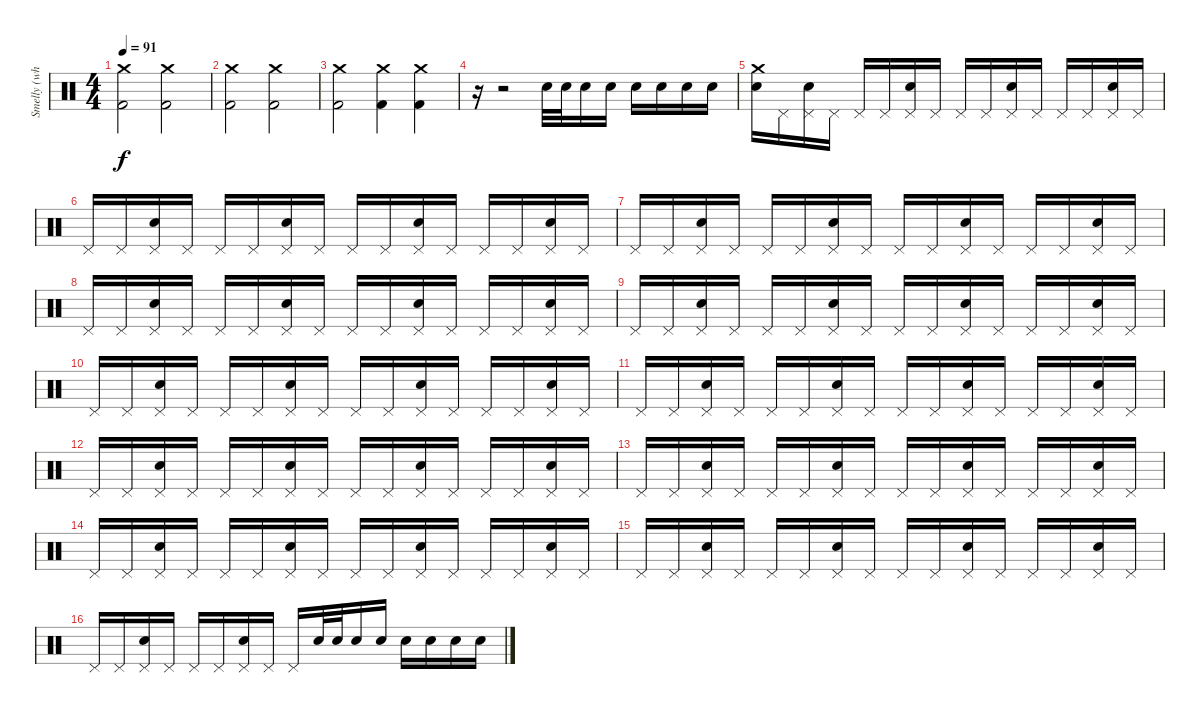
\track ("Smelly (who ever change his name)" "Smelly (wh") {instrument percussion}
\staff {score}
\articulation defaults
\ts (4 4)
\tempo 91
\clef neutral
\ks c
("Crash medium (hit)" "Kick (hit) 2").2{dy f volume 8} ("Crash medium (hit)" "Kick (hit) 2").2 |
("Crash medium (hit)" "Kick (hit) 2").2 ("Crash medium (hit)" "Kick (hit) 2").2 |
("Crash medium (hit)" "Kick (hit) 2").2 ("Crash medium (hit)" "Kick (hit) 2").4 ("Crash medium (hit)" "Kick (hit) 2").4 |
r.16 r.2 "Electric Snare (hit)".32 "Electric Snare (hit)".32 "Electric Snare (hit)".16 "Electric Snare (hit)".16 "Electric Snare (hit)".16 "Electric Snare (hit)".16 "Electric Snare (hit)".16 "Electric Snare (hit)".16 |
("Crash medium (hit)" "Electric Snare (hit)").16 "Pedal Hi-Hat (hit)".16 ("Pedal Hi-Hat (hit)" "Electric Snare (hit)").16 "Pedal Hi-Hat (hit)".16 "Pedal Hi-Hat (hit)".16 "Pedal Hi-Hat (hit)".16 ("Pedal Hi-Hat (hit)" "Electric Snare (hit)").16 "Pedal Hi-Hat (hit)".16 "Pedal Hi-Hat (hit)".16 "Pedal Hi-Hat (hit)".16 ("Pedal Hi-Hat (hit)" "Electric Snare (hit)").16 "Pedal Hi-Hat (hit)".16 "Pedal Hi-Hat (hit)".16 "Pedal Hi-Hat (hit)".16 ("Pedal Hi-Hat (hit)" "Electric Snare (hit)").16 "Pedal Hi-Hat (hit)".16 |
"Pedal Hi-Hat (hit)".16 "Pedal Hi-Hat (hit)".16 ("Pedal Hi-Hat (hit)" "Electric Snare (hit)").16 "Pedal Hi-Hat (hit)".16 "Pedal Hi-Hat (hit)".16 "Pedal Hi-Hat (hit)".16 ("Pedal Hi-Hat (hit)" "Electric Snare (hit)").16 "Pedal Hi-Hat (hit)".16 "Pedal Hi-Hat (hit)".16 "Pedal Hi-Hat (hit)".16 ("Pedal Hi-Hat (hit)" "Electric Snare (hit)").16 "Pedal Hi-Hat (hit)".16 "Pedal Hi-Hat (hit)".16 "Pedal Hi-Hat (hit)".16 ("Pedal Hi-Hat (hit)" "Electric Snare (hit)").16 "Pedal Hi-Hat (hit)".16 |
"Pedal Hi-Hat (hit)".16 "Pedal Hi-Hat (hit)".16 ("Pedal Hi-Hat (hit)" "Electric Snare (hit)").16 "Pedal Hi-Hat (hit)".16 "Pedal Hi-Hat (hit)".16 "Pedal Hi-Hat (hit)".16 ("Pedal Hi-Hat (hit)" "Electric Snare (hit)").16 "Pedal Hi-Hat (hit)".16 "Pedal Hi-Hat (hit)".16 "Pedal Hi-Hat (hit)".16 ("Pedal Hi-Hat (hit)" "Electric Snare (hit)").16 "Pedal Hi-Hat (hit)".16 "Pedal Hi-Hat (hit)".16 "Pedal Hi-Hat (hit)".16 ("Pedal Hi-Hat (hit)" "Electric Snare (hit)").16 "Pedal Hi-Hat (hit)".16 |
"Pedal Hi-Hat (hit)".16 "Pedal Hi-Hat (hit)".16 ("Pedal Hi-Hat (hit)" "Electric Snare (hit)").16 "Pedal Hi-Hat (hit)".16 "Pedal Hi-Hat (hit)".16 "Pedal Hi-Hat (hit)".16 ("Pedal Hi-Hat (hit)" "Electric Snare (hit)").16 "Pedal Hi-Hat (hit)".16 "Pedal Hi-Hat (hit)".16 "Pedal Hi-Hat (hit)".16 ("Pedal Hi-Hat (hit)" "Electric Snare (hit)").16 "Pedal Hi-Hat (hit)".16 "Pedal Hi-Hat (hit)".16 "Pedal Hi-Hat (hit)".16 ("Pedal Hi-Hat (hit)" "Electric Snare (hit)").16 "Pedal Hi-Hat (hit)".16 |
"Pedal Hi-Hat (hit)".16 "Pedal Hi-Hat (hit)".16 ("Pedal Hi-Hat (hit)" "Electric Snare (hit)").16 "Pedal Hi-Hat (hit)".16 "Pedal Hi-Hat (hit)".16 "Pedal Hi-Hat (hit)".16 ("Pedal Hi-Hat (hit)" "Electric Snare (hit)").16 "Pedal Hi-Hat (hit)".16 "Pedal Hi-Hat (hit)".16 "Pedal Hi-Hat (hit)".16 ("Pedal Hi-Hat (hit)" "Electric Snare (hit)").16 "Pedal Hi-Hat (hit)".16 "Pedal Hi-Hat (hit)".16 "Pedal Hi-Hat (hit)".16 ("Pedal Hi-Hat (hit)" "Electric Snare (hit)").16 "Pedal Hi-Hat (hit)".16 |
"Pedal Hi-Hat (hit)".16 "Pedal Hi-Hat (hit)".16 ("Pedal Hi-Hat (hit)" "Electric Snare (hit)").16 "Pedal Hi-Hat (hit)".16 "Pedal Hi-Hat (hit)".16 "Pedal Hi-Hat (hit)".16 ("Pedal Hi-Hat (hit)" "Electric Snare (hit)").16 "Pedal Hi-Hat (hit)".16 "Pedal Hi-Hat (hit)".16 "Pedal Hi-Hat (hit)".16 ("Pedal Hi-Hat (hit)" "Electric Snare (hit)").16 "Pedal Hi-Hat (hit)".16 "Pedal Hi-Hat (hit)".16 "Pedal Hi-Hat (hit)".16 ("Pedal Hi-Hat (hit)" "Electric Snare (hit)").16 "Pedal Hi-Hat (hit)".16 |
"Pedal Hi-Hat (hit)".16 "Pedal Hi-Hat (hit)".16 ("Pedal Hi-Hat (hit)" "Electric Snare (hit)").16 "Pedal Hi-Hat (hit)".16 "Pedal Hi-Hat (hit)".16 "Pedal Hi-Hat (hit)".16 ("Pedal Hi-Hat (hit)" "Electric Snare (hit)").16 "Pedal Hi-Hat (hit)".16 "Pedal Hi-Hat (hit)".16 "Pedal Hi-Hat (hit)".16 ("Pedal Hi-Hat (hit)" "Electric Snare (hit)").16 "Pedal Hi-Hat (hit)".16 "Pedal Hi-Hat (hit)".16 "Pedal Hi-Hat (hit)".16 ("Pedal Hi-Hat (hit)" "Electric Snare (hit)").16 "Pedal Hi-Hat (hit)".16 |
"Pedal Hi-Hat (hit)".16 "Pedal Hi-Hat (hit)".16 ("Pedal Hi-Hat (hit)" "Electric Snare (hit)").16 "Pedal Hi-Hat (hit)".16 "Pedal Hi-Hat (hit)".16 "Pedal Hi-Hat (hit)".16 ("Pedal Hi-Hat (hit)" "Electric Snare (hit)").16 "Pedal Hi-Hat (hit)".16 "Pedal Hi-Hat (hit)".16 "Pedal Hi-Hat (hit)".16 ("Pedal Hi-Hat (hit)" "Electric Snare (hit)").16 "Pedal Hi-Hat (hit)".16 "Pedal Hi-Hat (hit)".16 "Pedal Hi-Hat (hit)".16 ("Pedal Hi-Hat (hit)" "Electric Snare (hit)").16 "Pedal Hi-Hat (hit)".16 |
"Pedal Hi-Hat (hit)".16 "Pedal Hi-Hat (hit)".16 ("Pedal Hi-Hat (hit)" "Electric Snare (hit)").16 "Pedal Hi-Hat (hit)".16 "Pedal Hi-Hat (hit)".16 "Pedal Hi-Hat (hit)".16 ("Pedal Hi-Hat (hit)" "Electric Snare (hit)").16 "Pedal Hi-Hat (hit)".16 "Pedal Hi-Hat (hit)".16 "Pedal Hi-Hat (hit)".16 ("Pedal Hi-Hat (hit)" "Electric Snare (hit)").16 "Pedal Hi-Hat (hit)".16 "Pedal Hi-Hat (hit)".16 "Pedal Hi-Hat (hit)".16 ("Pedal Hi-Hat (hit)" "Electric Snare (hit)").16 "Pedal Hi-Hat (hit)".16 |
"Pedal Hi-Hat (hit)".16 "Pedal Hi-Hat (hit)".16 ("Pedal Hi-Hat (hit)" "Electric Snare (hit)").16 "Pedal Hi-Hat (hit)".16 "Pedal Hi-Hat (hit)".16 "Pedal Hi-Hat (hit)".16 ("Pedal Hi-Hat (hit)" "Electric Snare (hit)").16 "Pedal Hi-Hat (hit)".16 "Pedal Hi-Hat (hit)".16 "Pedal Hi-Hat (hit)".16 ("Pedal Hi-Hat (hit)" "Electric Snare (hit)").16 "Pedal Hi-Hat (hit)".16 "Pedal Hi-Hat (hit)".16 "Pedal Hi-Hat (hit)".16 ("Pedal Hi-Hat (hit)" "Electric Snare (hit)").16 "Pedal Hi-Hat (hit)".16 |
"Pedal Hi-Hat (hit)".16 "Pedal Hi-Hat (hit)".16 ("Pedal Hi-Hat (hit)" "Electric Snare (hit)").16 "Pedal Hi-Hat (hit)".16 "Pedal Hi-Hat (hit)".16 "Pedal Hi-Hat (hit)".16 ("Pedal Hi-Hat (hit)" "Electric Snare (hit)").16 "Pedal Hi-Hat (hit)".16 "Pedal Hi-Hat (hit)".16 "Pedal Hi-Hat (hit)".16 ("Pedal Hi-Hat (hit)" "Electric Snare (hit)").16 "Pedal Hi-Hat (hit)".16 "Pedal Hi-Hat (hit)".16 "Pedal Hi-Hat (hit)".16 ("Pedal Hi-Hat (hit)" "Electric Snare (hit)").16 "Pedal Hi-Hat (hit)".16 |
"Pedal Hi-Hat (hit)".16 "Pedal Hi-Hat (hit)".16 ("Pedal Hi-Hat (hit)" "Electric Snare (hit)").16 "Pedal Hi-Hat (hit)".16 "Pedal Hi-Hat (hit)".16 "Pedal Hi-Hat (hit)".16 ("Pedal Hi-Hat (hit)" "Electric Snare (hit)").16 "Pedal Hi-Hat (hit)".16 "Pedal Hi-Hat (hit)".16 "Electric Snare (hit)".32 "Electric Snare (hit)".32 "Electric Snare (hit)".16 "Electric Snare (hit)".16 "Electric Snare (hit)".16 "Electric Snare (hit)".16 "Electric Snare (hit)".16 "Electric Snare (hit)".16
